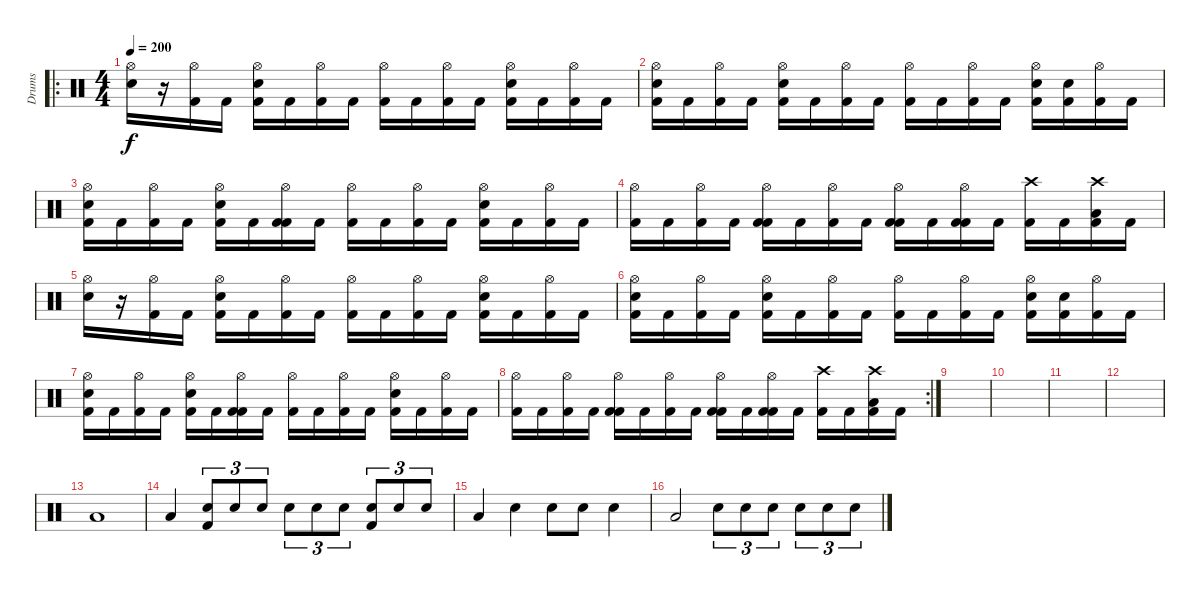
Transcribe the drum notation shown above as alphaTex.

\track ("Drums" "Drums") {instrument percussion}
\staff {score}
\articulation defaults
\ro
\ts (4 4)
\tempo 200
\clef neutral
\ks c
("Hi-Hat (open)" "Snare (hit) 2").16{dy f} r.16 ("Hi-Hat (open)" "Kick (hit) 2").16 "Kick (hit) 2".16 ("Hi-Hat (open)" "Snare (hit) 2" "Kick (hit) 2").16 "Kick (hit) 2".16 ("Hi-Hat (open)" "Kick (hit) 2").16 "Kick (hit) 2".16 ("Hi-Hat (open)" "Kick (hit) 2").16 "Kick (hit) 2".16 ("Hi-Hat (open)" "Kick (hit) 2").16 "Kick (hit) 2".16 ("Hi-Hat (open)" "Snare (hit) 2" "Kick (hit) 2").16 "Kick (hit) 2".16 ("Hi-Hat (open)" "Kick (hit) 2").16 "Kick (hit) 2".16 |
("Hi-Hat (open)" "Snare (hit) 2" "Kick (hit) 2").16 "Kick (hit) 2".16 ("Hi-Hat (open)" "Kick (hit) 2").16 "Kick (hit) 2".16 ("Hi-Hat (open)" "Snare (hit) 2" "Kick (hit) 2").16 "Kick (hit) 2".16 ("Hi-Hat (open)" "Kick (hit) 2").16 "Kick (hit) 2".16 ("Hi-Hat (open)" "Kick (hit) 2").16 "Kick (hit) 2".16 ("Hi-Hat (open)" "Kick (hit) 2").16 "Kick (hit) 2".16 ("Hi-Hat (open)" "Snare (hit) 2" "Kick (hit) 2").16 ("Snare (hit) 2" "Kick (hit) 2").16 ("Hi-Hat (open)" "Kick (hit) 2").16 "Kick (hit) 2".16 |
("Hi-Hat (open)" "Snare (hit) 2" "Kick (hit) 2").16 "Kick (hit) 2".16 ("Hi-Hat (open)" "Kick (hit) 2").16 "Kick (hit) 2".16 ("Hi-Hat (open)" "Snare (hit) 2" "Kick (hit) 2").16 "Kick (hit) 2".16 ("Hi-Hat (open)" "Kick (hit) 2" "Kick (hit) 2").16 "Kick (hit) 2".16 ("Hi-Hat (open)" "Kick (hit) 2").16 "Kick (hit) 2".16 ("Hi-Hat (open)" "Kick (hit) 2").16 "Kick (hit) 2".16 ("Hi-Hat (open)" "Snare (hit) 2" "Kick (hit) 2").16 "Kick (hit) 2".16 ("Hi-Hat (open)" "Kick (hit) 2").16 "Kick (hit) 2".16 |
("Hi-Hat (open)" "Kick (hit) 2").16 "Kick (hit) 2".16 ("Hi-Hat (open)" "Kick (hit) 2").16 "Kick (hit) 2".16 ("Hi-Hat (open)" "Kick (hit) 2" "Kick (hit) 2").16 "Kick (hit) 2".16 ("Hi-Hat (open)" "Kick (hit) 2").16 "Kick (hit) 2".16 ("Hi-Hat (open)" "Kick (hit) 2" "Kick (hit) 2").16 "Kick (hit) 2".16 ("Hi-Hat (open)" "Kick (hit) 2" "Kick (hit) 2").16 "Kick (hit) 2".16 ("Crash high (hit)" "Kick (hit) 2").16 "Kick (hit) 2".16 ("Crash high (hit)" "Low Floor Tom (hit)" "Kick (hit) 2").16 "Kick (hit) 2".16 |
("Hi-Hat (open)" "Snare (hit) 2").16 r.16 ("Hi-Hat (open)" "Kick (hit) 2").16 "Kick (hit) 2".16 ("Hi-Hat (open)" "Snare (hit) 2" "Kick (hit) 2").16 "Kick (hit) 2".16 ("Hi-Hat (open)" "Kick (hit) 2").16 "Kick (hit) 2".16 ("Hi-Hat (open)" "Kick (hit) 2").16 "Kick (hit) 2".16 ("Hi-Hat (open)" "Kick (hit) 2").16 "Kick (hit) 2".16 ("Hi-Hat (open)" "Snare (hit) 2" "Kick (hit) 2").16 "Kick (hit) 2".16 ("Hi-Hat (open)" "Kick (hit) 2").16 "Kick (hit) 2".16 |
("Hi-Hat (open)" "Snare (hit) 2" "Kick (hit) 2").16 "Kick (hit) 2".16 ("Hi-Hat (open)" "Kick (hit) 2").16 "Kick (hit) 2".16 ("Hi-Hat (open)" "Snare (hit) 2" "Kick (hit) 2").16 "Kick (hit) 2".16 ("Hi-Hat (open)" "Kick (hit) 2").16 "Kick (hit) 2".16 ("Hi-Hat (open)" "Kick (hit) 2").16 "Kick (hit) 2".16 ("Hi-Hat (open)" "Kick (hit) 2").16 "Kick (hit) 2".16 ("Hi-Hat (open)" "Snare (hit) 2" "Kick (hit) 2").16 ("Snare (hit) 2" "Kick (hit) 2").16 ("Hi-Hat (open)" "Kick (hit) 2").16 "Kick (hit) 2".16 |
("Hi-Hat (open)" "Snare (hit) 2" "Kick (hit) 2").16 "Kick (hit) 2".16 ("Hi-Hat (open)" "Kick (hit) 2").16 "Kick (hit) 2".16 ("Hi-Hat (open)" "Snare (hit) 2" "Kick (hit) 2").16 "Kick (hit) 2".16 ("Hi-Hat (open)" "Kick (hit) 2" "Kick (hit) 2").16 "Kick (hit) 2".16 ("Hi-Hat (open)" "Kick (hit) 2").16 "Kick (hit) 2".16 ("Hi-Hat (open)" "Kick (hit) 2").16 "Kick (hit) 2".16 ("Hi-Hat (open)" "Snare (hit) 2" "Kick (hit) 2").16 "Kick (hit) 2".16 ("Hi-Hat (open)" "Kick (hit) 2").16 "Kick (hit) 2".16 |
\rc 2
("Hi-Hat (open)" "Kick (hit) 2").16 "Kick (hit) 2".16 ("Hi-Hat (open)" "Kick (hit) 2").16 "Kick (hit) 2".16 ("Hi-Hat (open)" "Kick (hit) 2" "Kick (hit) 2").16 "Kick (hit) 2".16 ("Hi-Hat (open)" "Kick (hit) 2").16 "Kick (hit) 2".16 ("Hi-Hat (open)" "Kick (hit) 2" "Kick (hit) 2").16 "Kick (hit) 2".16 ("Hi-Hat (open)" "Kick (hit) 2" "Kick (hit) 2").16 "Kick (hit) 2".16 ("Crash high (hit)" "Kick (hit) 2").16 "Kick (hit) 2".16 ("Crash high (hit)" "Low Floor Tom (hit)" "Kick (hit) 2").16 "Kick (hit) 2".16 |
|
|
|
|
"Low Floor Tom (hit)".1 |
"Low Floor Tom (hit)".4 ("Snare (hit) 2" "Kick (hit) 2").8{tu (3 2)} "Snare (hit) 2".8{tu (3 2)} "Snare (hit) 2".8{tu (3 2)} "Snare (hit) 2".8{tu (3 2)} "Snare (hit) 2".8{tu (3 2)} "Snare (hit) 2".8{tu (3 2)} ("Snare (hit) 2" "Kick (hit) 2").8{tu (3 2)} "Snare (hit) 2".8{tu (3 2)} "Snare (hit) 2".8{tu (3 2)} |
"Low Floor Tom (hit)".4 "Snare (hit) 2".4 "Snare (hit) 2".8 "Snare (hit) 2".8 "Snare (hit) 2".4 |
"Low Floor Tom (hit)".2 "Snare (hit) 2".8{tu (3 2)} "Snare (hit) 2".8{tu (3 2)} "Snare (hit) 2".8{tu (3 2)} "Snare (hit) 2".8{tu (3 2)} "Snare (hit) 2".8{tu (3 2)} "Snare (hit) 2".8{tu (3 2)}
